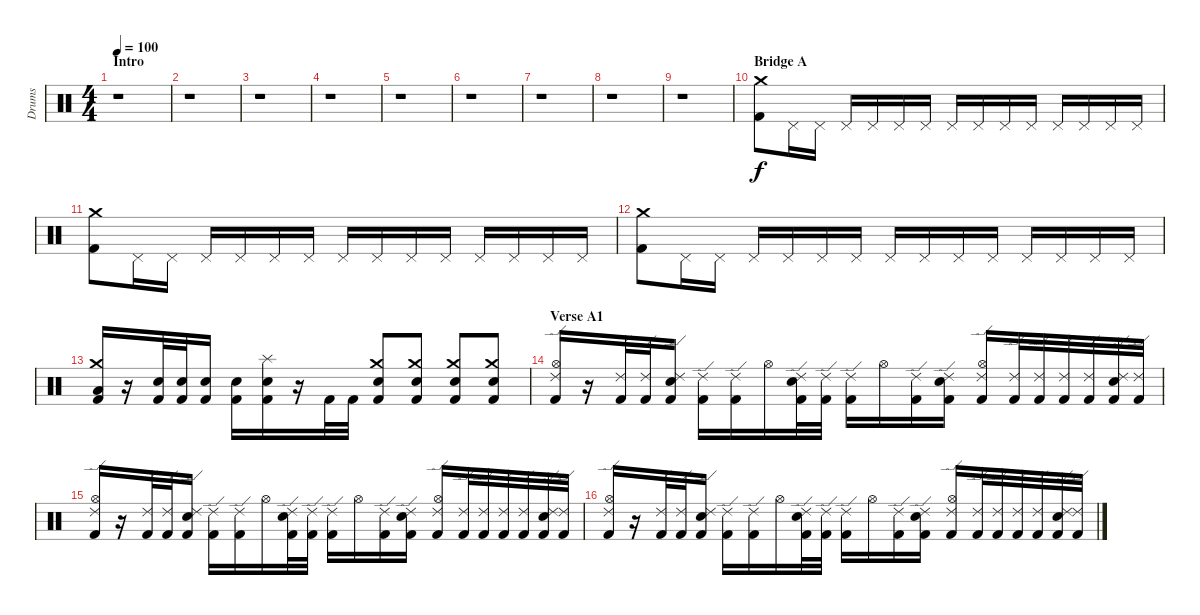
\track ("Drums" "Drums") {instrument percussion}
\staff {score}
\articulation defaults
\ts (4 4)
\section ("" "Intro")
\tempo 100
\clef neutral
\ks c
r.1{dy f} |
r.1 |
r.1 |
r.1 |
r.1 |
r.1 |
r.1 |
r.1 |
r.1 |
\section ("" "Bridge A")
("Kick (hit) 2" "Crash medium (hit)").8 "Pedal Hi-Hat (hit)".16 "Pedal Hi-Hat (hit)".16 "Pedal Hi-Hat (hit)".16 "Pedal Hi-Hat (hit)".16 "Pedal Hi-Hat (hit)".16 "Pedal Hi-Hat (hit)".16 "Pedal Hi-Hat (hit)".16 "Pedal Hi-Hat (hit)".16 "Pedal Hi-Hat (hit)".16 "Pedal Hi-Hat (hit)".16 "Pedal Hi-Hat (hit)".16 "Pedal Hi-Hat (hit)".16 "Pedal Hi-Hat (hit)".16 "Pedal Hi-Hat (hit)".16 |
("Kick (hit) 2" "Crash medium (hit)").8 "Pedal Hi-Hat (hit)".16 "Pedal Hi-Hat (hit)".16 "Pedal Hi-Hat (hit)".16 "Pedal Hi-Hat (hit)".16 "Pedal Hi-Hat (hit)".16 "Pedal Hi-Hat (hit)".16 "Pedal Hi-Hat (hit)".16 "Pedal Hi-Hat (hit)".16 "Pedal Hi-Hat (hit)".16 "Pedal Hi-Hat (hit)".16 "Pedal Hi-Hat (hit)".16 "Pedal Hi-Hat (hit)".16 "Pedal Hi-Hat (hit)".16 "Pedal Hi-Hat (hit)".16 |
("Kick (hit) 2" "Crash medium (hit)").8 "Pedal Hi-Hat (hit)".16 "Pedal Hi-Hat (hit)".16 "Pedal Hi-Hat (hit)".16 "Pedal Hi-Hat (hit)".16 "Pedal Hi-Hat (hit)".16 "Pedal Hi-Hat (hit)".16 "Pedal Hi-Hat (hit)".16 "Pedal Hi-Hat (hit)".16 "Pedal Hi-Hat (hit)".16 "Pedal Hi-Hat (hit)".16 "Pedal Hi-Hat (hit)".16 "Pedal Hi-Hat (hit)".16 "Pedal Hi-Hat (hit)".16 "Pedal Hi-Hat (hit)".16 |
("Kick (hit) 2" "Crash medium (hit)" "Low Tom (hit)").16 r.16 ("Kick (hit) 2" "Electric Snare (hit)").32 ("Kick (hit) 2" "Electric Snare (hit)").32 ("Kick (hit) 2" "Electric Snare (hit)").16 ("Kick (hit) 2" "Electric Snare (hit)").16 ("Kick (hit) 2" "Splash (hit)" "Electric Snare (hit)").16 r.16 "Kick (hit) 2".32 "Kick (hit) 2".32 ("Kick (hit) 2" "Electric Snare (hit)" "Crash medium (hit)").8 ("Kick (hit) 2" "Electric Snare (hit)" "Crash medium (hit)").8 ("Kick (hit) 2" "Electric Snare (hit)" "Crash medium (hit)").8 ("Kick (hit) 2" "Electric Snare (hit)" "Crash medium (hit)").8 |
\section ("" "Verse A1")
("Kick (hit) 2" "Hi-Hat (open)" "Ride (edge) 2").16 r.16 ("Kick (hit) 2" "Ride (edge) 2").32 ("Kick (hit) 2" "Ride (edge) 2").32 ("Kick (hit) 2" "Electric Snare (hit)" "Ride (edge) 2").16 ("Kick (hit) 2" "Ride (edge) 2").16 ("Kick (hit) 2" "Ride (edge) 2").16 "Hi-Hat (open)".16 ("Kick (hit) 2" "Electric Snare (hit)" "Ride (edge) 2").32 ("Kick (hit) 2" "Ride (edge) 2").32 ("Kick (hit) 2" "Ride (edge) 2").16 "Hi-Hat (open)".16 ("Kick (hit) 2" "Ride (edge) 2").16 ("Kick (hit) 2" "Electric Snare (hit)" "Ride (edge) 2").16 ("Kick (hit) 2" "Hi-Hat (open)" "Ride (edge) 2").16 ("Kick (hit) 2" "Ride (edge) 2").32 ("Kick (hit) 2" "Ride (edge) 2").32 ("Kick (hit) 2" "Ride (edge) 2").32 ("Kick (hit) 2" "Ride (edge) 2").32 ("Kick (hit) 2" "Electric Snare (hit)" "Ride (edge) 2").32 ("Kick (hit) 2" "Ride (edge) 2").32 |
("Kick (hit) 2" "Hi-Hat (open)" "Ride (edge) 2").16 r.16 ("Kick (hit) 2" "Ride (edge) 2").32 ("Kick (hit) 2" "Ride (edge) 2").32 ("Kick (hit) 2" "Electric Snare (hit)" "Ride (edge) 2").16 ("Kick (hit) 2" "Ride (edge) 2").16 ("Kick (hit) 2" "Ride (edge) 2").16 "Hi-Hat (open)".16 ("Kick (hit) 2" "Electric Snare (hit)" "Ride (edge) 2").32 ("Kick (hit) 2" "Ride (edge) 2").32 ("Kick (hit) 2" "Ride (edge) 2").16 "Hi-Hat (open)".16 ("Kick (hit) 2" "Ride (edge) 2").16 ("Kick (hit) 2" "Electric Snare (hit)" "Ride (edge) 2").16 ("Kick (hit) 2" "Hi-Hat (open)" "Ride (edge) 2").16 ("Kick (hit) 2" "Ride (edge) 2").32 ("Kick (hit) 2" "Ride (edge) 2").32 ("Kick (hit) 2" "Ride (edge) 2").32 ("Kick (hit) 2" "Ride (edge) 2").32 ("Kick (hit) 2" "Electric Snare (hit)" "Ride (edge) 2").32 ("Kick (hit) 2" "Ride (edge) 2").32 |
("Kick (hit) 2" "Hi-Hat (open)" "Ride (edge) 2").16 r.16 ("Kick (hit) 2" "Ride (edge) 2").32 ("Kick (hit) 2" "Ride (edge) 2").32 ("Kick (hit) 2" "Electric Snare (hit)" "Ride (edge) 2").16 ("Kick (hit) 2" "Ride (edge) 2").16 ("Kick (hit) 2" "Ride (edge) 2").16 "Hi-Hat (open)".16 ("Kick (hit) 2" "Electric Snare (hit)" "Ride (edge) 2").32 ("Kick (hit) 2" "Ride (edge) 2").32 ("Kick (hit) 2" "Ride (edge) 2").16 "Hi-Hat (open)".16 ("Kick (hit) 2" "Ride (edge) 2").16 ("Kick (hit) 2" "Electric Snare (hit)" "Ride (edge) 2").16 ("Kick (hit) 2" "Hi-Hat (open)" "Ride (edge) 2").16 ("Kick (hit) 2" "Ride (edge) 2").32 ("Kick (hit) 2" "Ride (edge) 2").32 ("Kick (hit) 2" "Ride (edge) 2").32 ("Kick (hit) 2" "Ride (edge) 2").32 ("Kick (hit) 2" "Electric Snare (hit)" "Ride (edge) 2").32 ("Kick (hit) 2" "Ride (edge) 2").32
